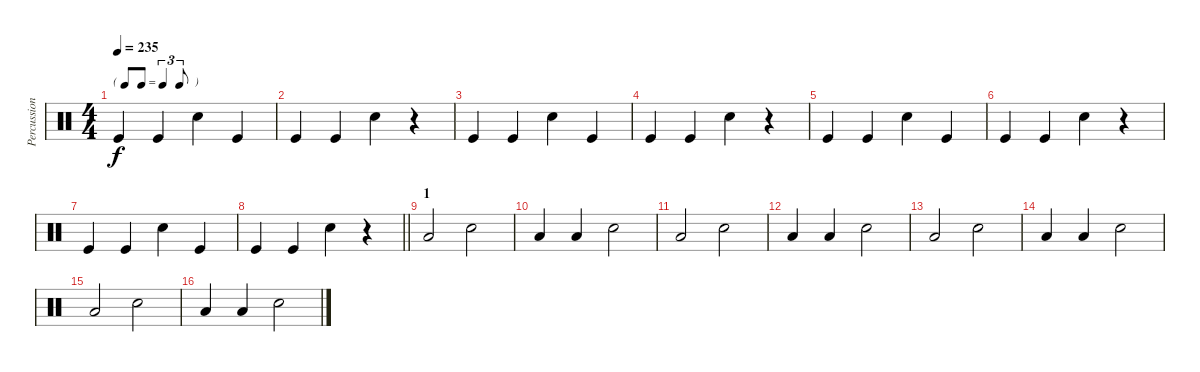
\track ("Percussions" "Percussion") {instrument percussion}
\staff
\articulation defaults
\ts (4 4)
\tf triplet8th
\tempo 235
\clef neutral
\ks c "Kick (hit)".4{dy f} "Kick (hit)".4 "Snare (hit) 2".4 "Kick (hit)".4
|
"Kick (hit)".4 "Kick (hit)".4 "Snare (hit) 2".4 r.4 |
"Kick (hit)".4 "Kick (hit)".4 "Snare (hit) 2".4 "Kick (hit)".4 |
"Kick (hit)".4 "Kick (hit)".4 "Snare (hit) 2".4 r.4 |
"Kick (hit)".4 "Kick (hit)".4 "Snare (hit) 2".4 "Kick (hit)".4 |
"Kick (hit)".4 "Kick (hit)".4 "Snare (hit) 2".4 r.4 |
"Kick (hit)".4 "Kick (hit)".4 "Snare (hit) 2".4 "Kick (hit)".4 |
\barLineRight lightlight "Kick (hit)".4 "Kick (hit)".4 "Snare (hit) 2".4
r.4 |
\section ("" "1")
"Low Tom (hit)".2 "Snare (hit) 2".2 |
"Low Tom (hit)".4 "Low Tom (hit)".4 "Snare (hit) 2".2 |
"Low Tom (hit)".2 "Snare (hit) 2".2 |
"Low Tom (hit)".4 "Low Tom (hit)".4 "Snare (hit) 2".2 |
"Low Tom (hit)".2 "Snare (hit) 2".2 |
"Low Tom (hit)".4 "Low Tom (hit)".4 "Snare (hit) 2".2 |
"Low Tom (hit)".2 "Snare (hit) 2".2 |
"Low Tom (hit)".4 "Low Tom (hit)".4 "Snare (hit) 2".2
